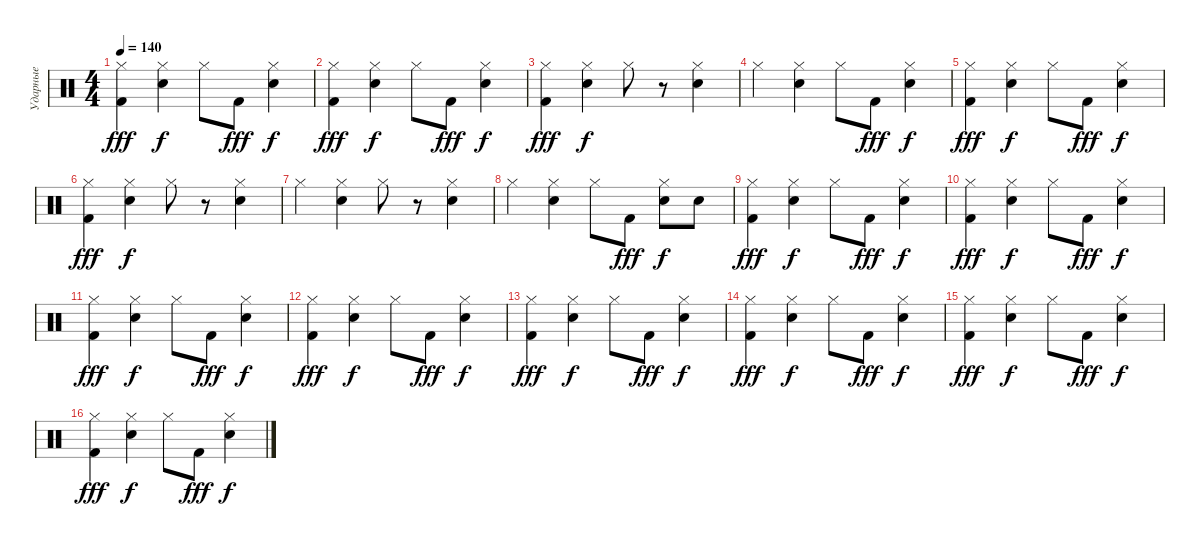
\track ("Ударные" "Ударные") {instrument percussion}
\staff {score}
\articulation defaults
\ts (4 4)
\tempo 140
\clef neutral
\ks c
("Hi-Hat (closed)" "Kick (hit) 2").4{dy fff} ("Hi-Hat (closed)" "Snare (hit) 2").4{dy f} "Hi-Hat (closed)".8 "Kick (hit) 2".8{dy fff} ("Hi-Hat (closed)" "Snare (hit) 2").4{dy f} |
("Hi-Hat (closed)" "Kick (hit) 2").4{dy fff} ("Hi-Hat (closed)" "Snare (hit) 2").4{dy f} "Hi-Hat (closed)".8 "Kick (hit) 2".8{dy fff} ("Hi-Hat (closed)" "Snare (hit) 2").4{dy f} |
("Hi-Hat (closed)" "Kick (hit) 2").4{dy fff} ("Hi-Hat (closed)" "Snare (hit) 2").4{dy f} "Hi-Hat (closed)".8 r.8 ("Hi-Hat (closed)" "Snare (hit) 2").4 |
"Hi-Hat (closed)".4 ("Hi-Hat (closed)" "Snare (hit) 2").4 "Hi-Hat (closed)".8 "Kick (hit) 2".8{dy fff} ("Hi-Hat (closed)" "Snare (hit) 2").4{dy f} |
("Hi-Hat (closed)" "Kick (hit) 2").4{dy fff} ("Hi-Hat (closed)" "Snare (hit) 2").4{dy f} "Hi-Hat (closed)".8 "Kick (hit) 2".8{dy fff} ("Hi-Hat (closed)" "Snare (hit) 2").4{dy f} |
("Hi-Hat (closed)" "Kick (hit) 2").4{dy fff} ("Hi-Hat (closed)" "Snare (hit) 2").4{dy f} "Hi-Hat (closed)".8 r.8 ("Hi-Hat (closed)" "Snare (hit) 2").4 |
"Hi-Hat (closed)".4 ("Hi-Hat (closed)" "Snare (hit) 2").4 "Hi-Hat (closed)".8 r.8 ("Hi-Hat (closed)" "Snare (hit) 2").4 |
"Hi-Hat (closed)".4 ("Hi-Hat (closed)" "Snare (hit) 2").4 "Hi-Hat (closed)".8 "Kick (hit) 2".8{dy fff} ("Hi-Hat (closed)" "Snare (hit) 2").8{dy f} "Snare (hit) 2".8 |
("Hi-Hat (closed)" "Kick (hit) 2").4{dy fff} ("Hi-Hat (closed)" "Snare (hit) 2").4{dy f} "Hi-Hat (closed)".8 "Kick (hit) 2".8{dy fff} ("Hi-Hat (closed)" "Snare (hit) 2").4{dy f} |
("Hi-Hat (closed)" "Kick (hit) 2").4{dy fff} ("Hi-Hat (closed)" "Snare (hit) 2").4{dy f} "Hi-Hat (closed)".8 "Kick (hit) 2".8{dy fff} ("Hi-Hat (closed)" "Snare (hit) 2").4{dy f} |
("Hi-Hat (closed)" "Kick (hit) 2").4{dy fff} ("Hi-Hat (closed)" "Snare (hit) 2").4{dy f} "Hi-Hat (closed)".8 "Kick (hit) 2".8{dy fff} ("Hi-Hat (closed)" "Snare (hit) 2").4{dy f} |
("Hi-Hat (closed)" "Kick (hit) 2").4{dy fff} ("Hi-Hat (closed)" "Snare (hit) 2").4{dy f} "Hi-Hat (closed)".8 "Kick (hit) 2".8{dy fff} ("Hi-Hat (closed)" "Snare (hit) 2").4{dy f} |
("Hi-Hat (closed)" "Kick (hit) 2").4{dy fff} ("Hi-Hat (closed)" "Snare (hit) 2").4{dy f} "Hi-Hat (closed)".8 "Kick (hit) 2".8{dy fff} ("Hi-Hat (closed)" "Snare (hit) 2").4{dy f} |
("Hi-Hat (closed)" "Kick (hit) 2").4{dy fff} ("Hi-Hat (closed)" "Snare (hit) 2").4{dy f} "Hi-Hat (closed)".8 "Kick (hit) 2".8{dy fff} ("Hi-Hat (closed)" "Snare (hit) 2").4{dy f} |
("Hi-Hat (closed)" "Kick (hit) 2").4{dy fff} ("Hi-Hat (closed)" "Snare (hit) 2").4{dy f} "Hi-Hat (closed)".8 "Kick (hit) 2".8{dy fff} ("Hi-Hat (closed)" "Snare (hit) 2").4{dy f} |
("Hi-Hat (closed)" "Kick (hit) 2").4{dy fff} ("Hi-Hat (closed)" "Snare (hit) 2").4{dy f} "Hi-Hat (closed)".8 "Kick (hit) 2".8{dy fff} ("Hi-Hat (closed)" "Snare (hit) 2").4{dy f}
